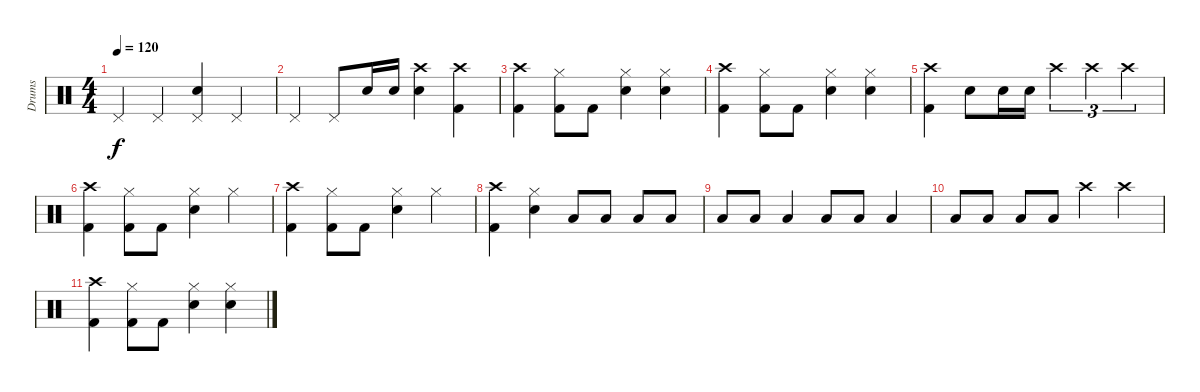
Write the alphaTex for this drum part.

\track ("Drums" "Drums") {instrument percussion}
\staff {score}
\articulation defaults
\ts (4 4)
\tempo 120
\clef neutral
\ks c "Pedal Hi-Hat (hit)".4{dy f} "Pedal Hi-Hat (hit)".4
("Pedal Hi-Hat (hit)" "Snare (hit) 2").4 "Pedal Hi-Hat (hit)".4 |
"Pedal Hi-Hat (hit)".4 "Pedal Hi-Hat (hit)".8 "Snare (hit) 2".16 "Snare (hit) 2".16 ("Crash high (hit)" "Snare (hit) 2").4 ("Crash high (hit)" "Kick (hit) 2").4 |
("Crash high (hit)" "Kick (hit) 2").4 ("Hi-Hat (closed)" "Kick (hit) 2").8 "Kick (hit) 2".8 ("Hi-Hat (closed)" "Snare (hit) 2").4 ("Hi-Hat (closed)" "Snare (hit) 2").4 |
("Crash high (hit)" "Kick (hit) 2").4 ("Hi-Hat (closed)" "Kick (hit) 2").8 "Kick (hit) 2".8 ("Hi-Hat (closed)" "Snare (hit) 2").4 ("Hi-Hat (closed)" "Snare (hit) 2").4 |
("Crash high (hit)" "Kick (hit) 2").4 "Snare (hit) 2".8 "Snare (hit) 2".16 "Snare (hit) 2".16 "Crash high (hit)".4{tu (3 2)} "Crash high (hit)".4{tu (3 2)} "Crash high (hit)".4{tu (3 2)} |
("Crash high (hit)" "Kick (hit) 2").4 ("Hi-Hat (closed)" "Kick (hit) 2").8 "Kick (hit) 2".8 ("Hi-Hat (closed)" "Snare (hit) 2").4 "Hi-Hat (closed)".4 |
("Crash high (hit)" "Kick (hit) 2").4 ("Hi-Hat (closed)" "Kick (hit) 2").8 "Kick (hit) 2".8 ("Hi-Hat (closed)" "Snare (hit) 2").4 "Hi-Hat (closed)".4 |
("Crash high (hit)" "Kick (hit) 2").4 ("Hi-Hat (closed)" "Snare (hit) 2").4 "Low Tom (hit)".8 "Low Tom (hit)".8 "Low Tom (hit)".8 "Low Tom (hit)".8 |
"Low Tom (hit)".8 "Low Tom (hit)".8 "Low Tom (hit)".4 "Low Tom (hit)".8 "Low Tom (hit)".8 "Low Tom (hit)".4 |
"Low Tom (hit)".8 "Low Tom (hit)".8 "Low Tom (hit)".8 "Low Tom (hit)".8 "Crash high (hit)".4 "Crash high (hit)".4 |
("Crash high (hit)" "Kick (hit) 2").4 ("Hi-Hat (closed)" "Kick (hit) 2").8 "Kick (hit) 2".8 ("Hi-Hat (closed)" "Snare (hit) 2").4 ("Hi-Hat (closed)" "Snare (hit) 2").4
